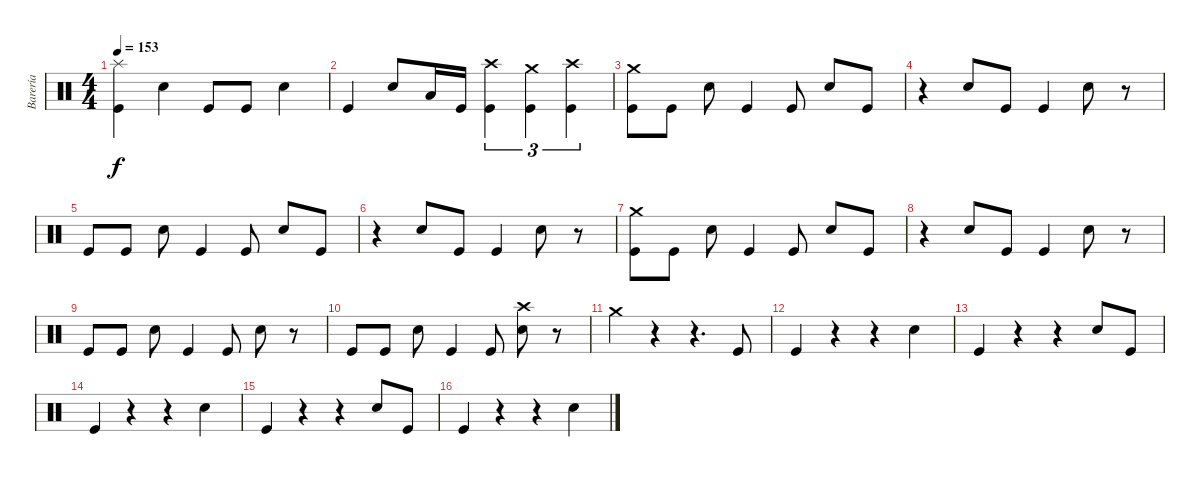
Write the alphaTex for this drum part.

\track ("Barería" "Barería") {instrument percussion}
\staff {score}
\articulation defaults
\ts (4 4)
\tempo 153
\clef neutral
\ks c
("Splash (hit)" "Kick (hit)").4{dy f} "Snare (hit) 2".4 "Kick (hit)".8 "Kick (hit)".8 "Snare (hit) 2".4 |
"Kick (hit)".4 "Snare (hit) 2".8 "Low Floor Tom (hit)".16 "Kick (hit)".16 ("Crash high (hit)" "Kick (hit)").4{tu (3 2)} ("Crash medium (hit)" "Kick (hit)").4{tu (3 2)} ("Crash high (hit)" "Kick (hit)").4{tu (3 2)} |
("Crash medium (hit)" "Kick (hit)").8 "Kick (hit)".8 "Snare (hit) 2".8 "Kick (hit)".4 "Kick (hit)".8 "Snare (hit) 2".8 "Kick (hit)".8 |
r.4 "Snare (hit) 2".8 "Kick (hit)".8 "Kick (hit)".4 "Snare (hit) 2".8 r.8 |
"Kick (hit)".8 "Kick (hit)".8 "Snare (hit) 2".8 "Kick (hit)".4 "Kick (hit)".8 "Snare (hit) 2".8 "Kick (hit)".8 |
r.4 "Snare (hit) 2".8 "Kick (hit)".8 "Kick (hit)".4 "Snare (hit) 2".8 r.8 |
("Crash medium (hit)" "Kick (hit)").8 "Kick (hit)".8 "Snare (hit) 2".8 "Kick (hit)".4 "Kick (hit)".8 "Snare (hit) 2".8 "Kick (hit)".8 |
r.4 "Snare (hit) 2".8 "Kick (hit)".8 "Kick (hit)".4 "Snare (hit) 2".8 r.8 |
"Kick (hit)".8 "Kick (hit)".8 "Snare (hit) 2".8 "Kick (hit)".4 "Kick (hit)".8 "Snare (hit) 2".8 r.8 |
"Kick (hit)".8 "Kick (hit)".8 "Snare (hit) 2".8 "Kick (hit)".4 "Kick (hit)".8 ("Crash high (hit)" "Snare (hit) 2").8 r.8 |
"Crash medium (hit)".4 r.4 r.4{d} "Kick (hit)".8 |
"Kick (hit)".4 r.4 r.4 "Snare (hit) 2".4 |
"Kick (hit)".4 r.4 r.4 "Snare (hit) 2".8 "Kick (hit)".8 |
"Kick (hit)".4 r.4 r.4 "Snare (hit) 2".4 |
"Kick (hit)".4 r.4 r.4 "Snare (hit) 2".8 "Kick (hit)".8 |
"Kick (hit)".4 r.4 r.4 "Snare (hit) 2".4
